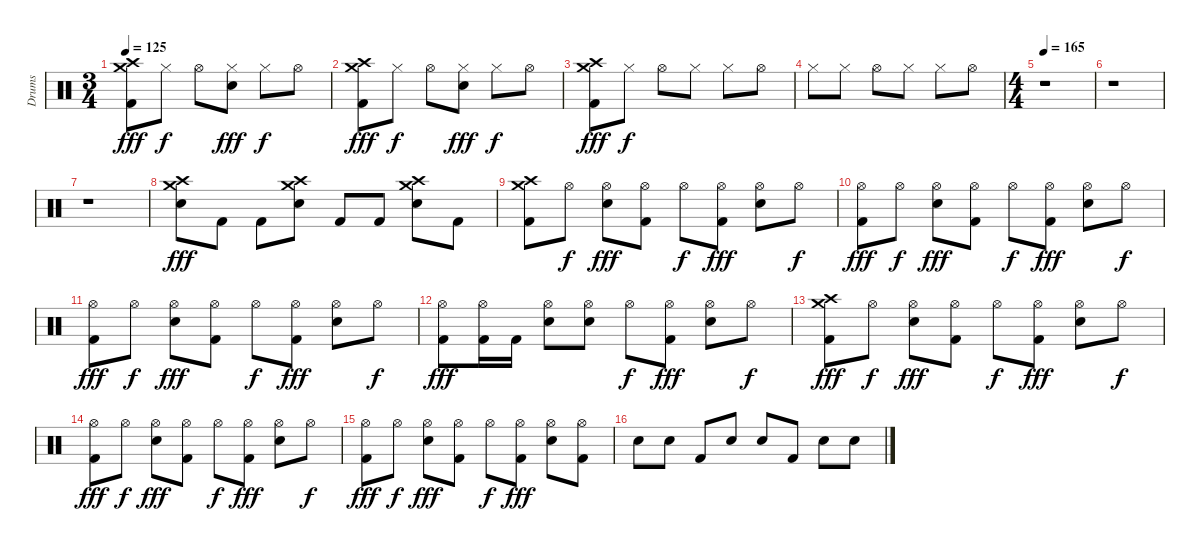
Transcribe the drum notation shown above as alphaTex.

\track ("Drums" "Drums") {instrument percussion}
\staff {score}
\articulation defaults
\ts (3 4)
\tempo 125
\clef neutral
\ks c
("Kick (hit) 2" "Crash medium (hit)" "Crash high (hit)").8{dy fff} "Hi-Hat (closed)".8{dy f} "Hi-Hat (open)".8 ("Electric Snare (hit)" "Hi-Hat (closed)").8{dy fff} "Hi-Hat (closed)".8{dy f} "Hi-Hat (open)".8 |
("Kick (hit) 2" "Crash medium (hit)" "Crash high (hit)").8{dy fff} "Hi-Hat (closed)".8{dy f} "Hi-Hat (open)".8 ("Electric Snare (hit)" "Hi-Hat (closed)").8{dy fff} "Hi-Hat (closed)".8{dy f} "Hi-Hat (open)".8 |
("Kick (hit) 2" "Crash medium (hit)" "Crash high (hit)").8{dy fff} "Hi-Hat (closed)".8{dy f} "Hi-Hat (open)".8 "Hi-Hat (closed)".8 "Hi-Hat (closed)".8 "Hi-Hat (open)".8 |
"Hi-Hat (closed)".8 "Hi-Hat (closed)".8 "Hi-Hat (open)".8 "Hi-Hat (closed)".8 "Hi-Hat (closed)".8 "Hi-Hat (open)".8 |
\ts (4 4)
\tempo 165
r.1 |
r.1 |
r.1 |
("Electric Snare (hit)" "Crash medium (hit)" "Crash high (hit)").8{dy fff} "Kick (hit) 2".8 "Kick (hit) 2".8 ("Electric Snare (hit)" "Crash medium (hit)" "Crash high (hit)").8 "Kick (hit) 2".8 "Kick (hit) 2".8 ("Electric Snare (hit)" "Crash medium (hit)" "Crash high (hit)").8 "Kick (hit) 2".8 |
("Kick (hit) 2" "Crash medium (hit)" "Crash high (hit)").8 "Hi-Hat (open)".8{dy f} ("Electric Snare (hit)" "Hi-Hat (open)").8{dy fff} ("Kick (hit) 2" "Hi-Hat (open)").8 "Hi-Hat (open)".8{dy f} ("Kick (hit) 2" "Hi-Hat (open)").8{dy fff} ("Electric Snare (hit)" "Hi-Hat (open)").8 "Hi-Hat (open)".8{dy f} |
("Kick (hit) 2" "Hi-Hat (open)").8{dy fff} "Hi-Hat (open)".8{dy f} ("Electric Snare (hit)" "Hi-Hat (open)").8{dy fff} ("Kick (hit) 2" "Hi-Hat (open)").8 "Hi-Hat (open)".8{dy f} ("Kick (hit) 2" "Hi-Hat (open)").8{dy fff} ("Electric Snare (hit)" "Hi-Hat (open)").8 "Hi-Hat (open)".8{dy f} |
("Kick (hit) 2" "Hi-Hat (open)").8{dy fff} "Hi-Hat (open)".8{dy f} ("Electric Snare (hit)" "Hi-Hat (open)").8{dy fff} ("Kick (hit) 2" "Hi-Hat (open)").8 "Hi-Hat (open)".8{dy f} ("Kick (hit) 2" "Hi-Hat (open)").8{dy fff} ("Electric Snare (hit)" "Hi-Hat (open)").8 "Hi-Hat (open)".8{dy f} |
("Kick (hit) 2" "Hi-Hat (open)").8{dy fff} ("Kick (hit) 2" "Hi-Hat (open)").16 "Kick (hit) 2".16 ("Electric Snare (hit)" "Hi-Hat (open)").8 ("Electric Snare (hit)" "Hi-Hat (open)").8 "Hi-Hat (open)".8{dy f} ("Kick (hit) 2" "Hi-Hat (open)").8{dy fff} ("Electric Snare (hit)" "Hi-Hat (open)").8 "Hi-Hat (open)".8{dy f} |
("Kick (hit) 2" "Crash medium (hit)" "Crash high (hit)").8{dy fff} "Hi-Hat (open)".8{dy f} ("Electric Snare (hit)" "Hi-Hat (open)").8{dy fff} ("Kick (hit) 2" "Hi-Hat (open)").8 "Hi-Hat (open)".8{dy f} ("Kick (hit) 2" "Hi-Hat (open)").8{dy fff} ("Electric Snare (hit)" "Hi-Hat (open)").8 "Hi-Hat (open)".8{dy f} |
("Kick (hit) 2" "Hi-Hat (open)").8{dy fff} "Hi-Hat (open)".8{dy f} ("Electric Snare (hit)" "Hi-Hat (open)").8{dy fff} ("Kick (hit) 2" "Hi-Hat (open)").8 "Hi-Hat (open)".8{dy f} ("Kick (hit) 2" "Hi-Hat (open)").8{dy fff} ("Electric Snare (hit)" "Hi-Hat (open)").8 "Hi-Hat (open)".8{dy f} |
("Kick (hit) 2" "Hi-Hat (open)").8{dy fff} "Hi-Hat (open)".8{dy f} ("Electric Snare (hit)" "Hi-Hat (open)").8{dy fff} ("Kick (hit) 2" "Hi-Hat (open)").8 "Hi-Hat (open)".8{dy f} ("Kick (hit) 2" "Hi-Hat (open)").8{dy fff} ("Electric Snare (hit)" "Hi-Hat (open)").8 ("Kick (hit) 2" "Hi-Hat (open)").8 |
"Electric Snare (hit)".8 "Electric Snare (hit)".8 "Kick (hit) 2".8 "Electric Snare (hit)".8 "Electric Snare (hit)".8 "Kick (hit) 2".8 "Electric Snare (hit)".8 "Electric Snare (hit)".8
